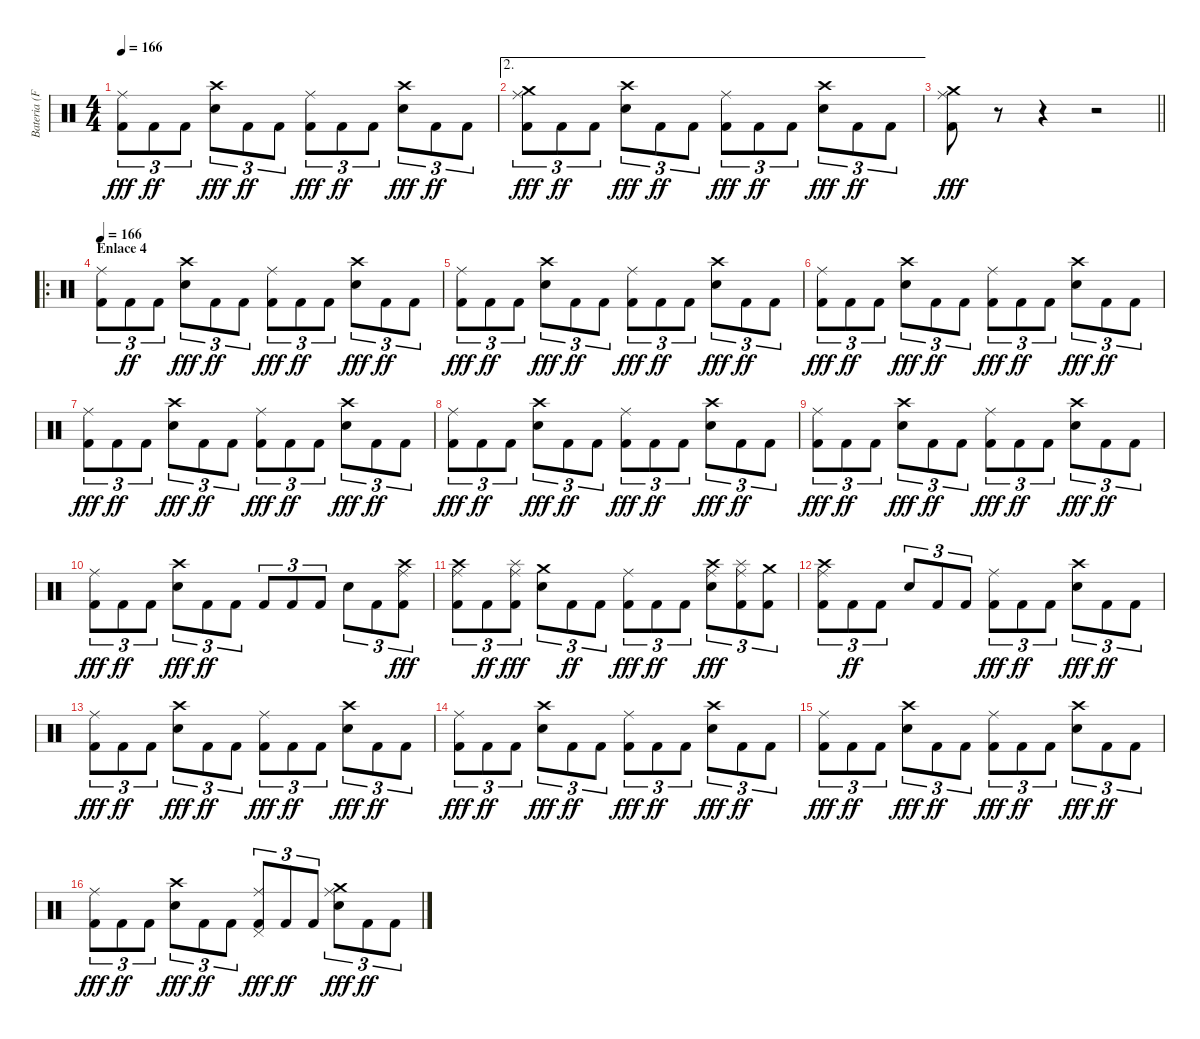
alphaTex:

\track ("Bateria (Fernando Scarcella)" "Bateria (F") {instrument percussion}
\staff {score}
\articulation defaults
\ts (4 4)
\tempo 166
\clef neutral
\ks c
("Kick (hit) 2" "Ride (middle)").8{tu (3 2) dy fff} "Kick (hit) 2".8{tu (3 2) dy ff} "Kick (hit) 2".8{tu (3 2)} ("Electric Snare (hit)" "Crash high (hit)").8{tu (3 2) dy fff} "Kick (hit) 2".8{tu (3 2) dy ff} "Kick (hit) 2".8{tu (3 2)} ("Kick (hit) 2" "Ride (middle)").8{tu (3 2) dy fff} "Kick (hit) 2".8{tu (3 2) dy ff} "Kick (hit) 2".8{tu (3 2)} ("Electric Snare (hit)" "Crash high (hit)").8{tu (3 2) dy fff} "Kick (hit) 2".8{tu (3 2) dy ff} "Kick (hit) 2".8{tu (3 2)} |
\ae 2
("Kick (hit) 2" "Ride (middle)" "Crash medium (hit)").8{tu (3 2) dy fff} "Kick (hit) 2".8{tu (3 2) dy ff} "Kick (hit) 2".8{tu (3 2)} ("Electric Snare (hit)" "Crash high (hit)").8{tu (3 2) dy fff} "Kick (hit) 2".8{tu (3 2) dy ff} "Kick (hit) 2".8{tu (3 2)} ("Kick (hit) 2" "Ride (middle)").8{tu (3 2) dy fff} "Kick (hit) 2".8{tu (3 2) dy ff} "Kick (hit) 2".8{tu (3 2)} ("Electric Snare (hit)" "Crash high (hit)").8{tu (3 2) dy fff} "Kick (hit) 2".8{tu (3 2) dy ff} "Kick (hit) 2".8{tu (3 2)} |
\barLineRight lightlight
("Kick (hit) 2" "Ride (middle)" "Crash medium (hit)").8{dy fff} r.8 r.4 r.2 |
\ro
\section ("" "Enlace 4")
\tempo 166
("Kick (hit) 2" "Ride (middle)").8{tu (3 2)} "Kick (hit) 2".8{tu (3 2) dy ff} "Kick (hit) 2".8{tu (3 2)} ("Electric Snare (hit)" "Crash high (hit)").8{tu (3 2) dy fff} "Kick (hit) 2".8{tu (3 2) dy ff} "Kick (hit) 2".8{tu (3 2)} ("Kick (hit) 2" "Ride (middle)").8{tu (3 2) dy fff} "Kick (hit) 2".8{tu (3 2) dy ff} "Kick (hit) 2".8{tu (3 2)} ("Electric Snare (hit)" "Crash high (hit)").8{tu (3 2) dy fff} "Kick (hit) 2".8{tu (3 2) dy ff} "Kick (hit) 2".8{tu (3 2)} |
("Kick (hit) 2" "Ride (middle)").8{tu (3 2) dy fff} "Kick (hit) 2".8{tu (3 2) dy ff} "Kick (hit) 2".8{tu (3 2)} ("Electric Snare (hit)" "Crash high (hit)").8{tu (3 2) dy fff} "Kick (hit) 2".8{tu (3 2) dy ff} "Kick (hit) 2".8{tu (3 2)} ("Kick (hit) 2" "Ride (middle)").8{tu (3 2) dy fff} "Kick (hit) 2".8{tu (3 2) dy ff} "Kick (hit) 2".8{tu (3 2)} ("Electric Snare (hit)" "Crash high (hit)").8{tu (3 2) dy fff} "Kick (hit) 2".8{tu (3 2) dy ff} "Kick (hit) 2".8{tu (3 2)} |
("Kick (hit) 2" "Ride (middle)").8{tu (3 2) dy fff} "Kick (hit) 2".8{tu (3 2) dy ff} "Kick (hit) 2".8{tu (3 2)} ("Electric Snare (hit)" "Crash high (hit)").8{tu (3 2) dy fff} "Kick (hit) 2".8{tu (3 2) dy ff} "Kick (hit) 2".8{tu (3 2)} ("Kick (hit) 2" "Ride (middle)").8{tu (3 2) dy fff} "Kick (hit) 2".8{tu (3 2) dy ff} "Kick (hit) 2".8{tu (3 2)} ("Electric Snare (hit)" "Crash high (hit)").8{tu (3 2) dy fff} "Kick (hit) 2".8{tu (3 2) dy ff} "Kick (hit) 2".8{tu (3 2)} |
("Kick (hit) 2" "Ride (middle)").8{tu (3 2) dy fff} "Kick (hit) 2".8{tu (3 2) dy ff} "Kick (hit) 2".8{tu (3 2)} ("Electric Snare (hit)" "Crash high (hit)").8{tu (3 2) dy fff} "Kick (hit) 2".8{tu (3 2) dy ff} "Kick (hit) 2".8{tu (3 2)} ("Kick (hit) 2" "Ride (middle)").8{tu (3 2) dy fff} "Kick (hit) 2".8{tu (3 2) dy ff} "Kick (hit) 2".8{tu (3 2)} ("Electric Snare (hit)" "Crash high (hit)").8{tu (3 2) dy fff} "Kick (hit) 2".8{tu (3 2) dy ff} "Kick (hit) 2".8{tu (3 2)} |
("Kick (hit) 2" "Ride (middle)").8{tu (3 2) dy fff} "Kick (hit) 2".8{tu (3 2) dy ff} "Kick (hit) 2".8{tu (3 2)} ("Electric Snare (hit)" "Crash high (hit)").8{tu (3 2) dy fff} "Kick (hit) 2".8{tu (3 2) dy ff} "Kick (hit) 2".8{tu (3 2)} ("Kick (hit) 2" "Ride (middle)").8{tu (3 2) dy fff} "Kick (hit) 2".8{tu (3 2) dy ff} "Kick (hit) 2".8{tu (3 2)} ("Electric Snare (hit)" "Crash high (hit)").8{tu (3 2) dy fff} "Kick (hit) 2".8{tu (3 2) dy ff} "Kick (hit) 2".8{tu (3 2)} |
("Kick (hit) 2" "Ride (middle)").8{tu (3 2) dy fff} "Kick (hit) 2".8{tu (3 2) dy ff} "Kick (hit) 2".8{tu (3 2)} ("Electric Snare (hit)" "Crash high (hit)").8{tu (3 2) dy fff} "Kick (hit) 2".8{tu (3 2) dy ff} "Kick (hit) 2".8{tu (3 2)} ("Kick (hit) 2" "Ride (middle)").8{tu (3 2) dy fff} "Kick (hit) 2".8{tu (3 2) dy ff} "Kick (hit) 2".8{tu (3 2)} ("Electric Snare (hit)" "Crash high (hit)").8{tu (3 2) dy fff} "Kick (hit) 2".8{tu (3 2) dy ff} "Kick (hit) 2".8{tu (3 2)} |
("Kick (hit) 2" "Ride (middle)").8{tu (3 2) dy fff} "Kick (hit) 2".8{tu (3 2) dy ff} "Kick (hit) 2".8{tu (3 2)} ("Electric Snare (hit)" "Crash high (hit)").8{tu (3 2) dy fff} "Kick (hit) 2".8{tu (3 2) dy ff} "Kick (hit) 2".8{tu (3 2)} "Kick (hit) 2".8{tu (3 2)} "Kick (hit) 2".8{tu (3 2)} "Kick (hit) 2".8{tu (3 2)} "Electric Snare (hit)".8{tu (3 2)} "Kick (hit) 2".8{tu (3 2)} ("Kick (hit) 2" "Ride (middle)" "Crash high (hit)").8{tu (3 2) dy fff} |
("Kick (hit) 2" "Ride (middle)" "Crash high (hit)").8{tu (3 2)} "Kick (hit) 2".8{tu (3 2) dy ff} ("Kick (hit) 2" "Ride (middle)" "Splash (hit)").8{tu (3 2) dy fff} ("Electric Snare (hit)" "Crash medium (hit)").8{tu (3 2)} "Kick (hit) 2".8{tu (3 2) dy ff} "Kick (hit) 2".8{tu (3 2)} ("Kick (hit) 2" "Ride (middle)").8{tu (3 2) dy fff} "Kick (hit) 2".8{tu (3 2) dy ff} "Kick (hit) 2".8{tu (3 2)} ("Electric Snare (hit)" "Ride (middle)" "Crash high (hit)").8{tu (3 2) dy fff} ("Kick (hit) 2" "Ride (middle)" "Splash (hit)").8{tu (3 2)} ("Kick (hit) 2" "Crash medium (hit)").8{tu (3 2)} |
("Kick (hit) 2" "Ride (middle)" "Crash high (hit)").8{tu (3 2)} "Kick (hit) 2".8{tu (3 2) dy ff} "Kick (hit) 2".8{tu (3 2)} "Electric Snare (hit)".8{tu (3 2)} "Kick (hit) 2".8{tu (3 2)} "Kick (hit) 2".8{tu (3 2)} ("Kick (hit) 2" "Ride (middle)").8{tu (3 2) dy fff} "Kick (hit) 2".8{tu (3 2) dy ff} "Kick (hit) 2".8{tu (3 2)} ("Electric Snare (hit)" "Crash high (hit)").8{tu (3 2) dy fff} "Kick (hit) 2".8{tu (3 2) dy ff} "Kick (hit) 2".8{tu (3 2)} |
("Kick (hit) 2" "Ride (middle)").8{tu (3 2) dy fff} "Kick (hit) 2".8{tu (3 2) dy ff} "Kick (hit) 2".8{tu (3 2)} ("Electric Snare (hit)" "Crash high (hit)").8{tu (3 2) dy fff} "Kick (hit) 2".8{tu (3 2) dy ff} "Kick (hit) 2".8{tu (3 2)} ("Kick (hit) 2" "Ride (middle)").8{tu (3 2) dy fff} "Kick (hit) 2".8{tu (3 2) dy ff} "Kick (hit) 2".8{tu (3 2)} ("Electric Snare (hit)" "Crash high (hit)").8{tu (3 2) dy fff} "Kick (hit) 2".8{tu (3 2) dy ff} "Kick (hit) 2".8{tu (3 2)} |
("Kick (hit) 2" "Ride (middle)").8{tu (3 2) dy fff} "Kick (hit) 2".8{tu (3 2) dy ff} "Kick (hit) 2".8{tu (3 2)} ("Electric Snare (hit)" "Crash high (hit)").8{tu (3 2) dy fff} "Kick (hit) 2".8{tu (3 2) dy ff} "Kick (hit) 2".8{tu (3 2)} ("Kick (hit) 2" "Ride (middle)").8{tu (3 2) dy fff} "Kick (hit) 2".8{tu (3 2) dy ff} "Kick (hit) 2".8{tu (3 2)} ("Electric Snare (hit)" "Crash high (hit)").8{tu (3 2) dy fff} "Kick (hit) 2".8{tu (3 2) dy ff} "Kick (hit) 2".8{tu (3 2)} |
("Kick (hit) 2" "Ride (middle)").8{tu (3 2) dy fff} "Kick (hit) 2".8{tu (3 2) dy ff} "Kick (hit) 2".8{tu (3 2)} ("Electric Snare (hit)" "Crash high (hit)").8{tu (3 2) dy fff} "Kick (hit) 2".8{tu (3 2) dy ff} "Kick (hit) 2".8{tu (3 2)} ("Kick (hit) 2" "Ride (middle)").8{tu (3 2) dy fff} "Kick (hit) 2".8{tu (3 2) dy ff} "Kick (hit) 2".8{tu (3 2)} ("Electric Snare (hit)" "Crash high (hit)").8{tu (3 2) dy fff} "Kick (hit) 2".8{tu (3 2) dy ff} "Kick (hit) 2".8{tu (3 2)} |
("Kick (hit) 2" "Ride (middle)").8{tu (3 2) dy fff} "Kick (hit) 2".8{tu (3 2) dy ff} "Kick (hit) 2".8{tu (3 2)} ("Electric Snare (hit)" "Crash high (hit)").8{tu (3 2) dy fff} "Kick (hit) 2".8{tu (3 2) dy ff} "Kick (hit) 2".8{tu (3 2)} ("Kick (hit) 2" "Ride (middle)" "Pedal Hi-Hat (hit)").8{tu (3 2) dy fff} "Kick (hit) 2".8{tu (3 2) dy ff} "Kick (hit) 2".8{tu (3 2)} ("Electric Snare (hit)" "Crash medium (hit)" "Ride (middle)").8{tu (3 2) dy fff} "Kick (hit) 2".8{tu (3 2) dy ff} "Kick (hit) 2".8{tu (3 2)}
